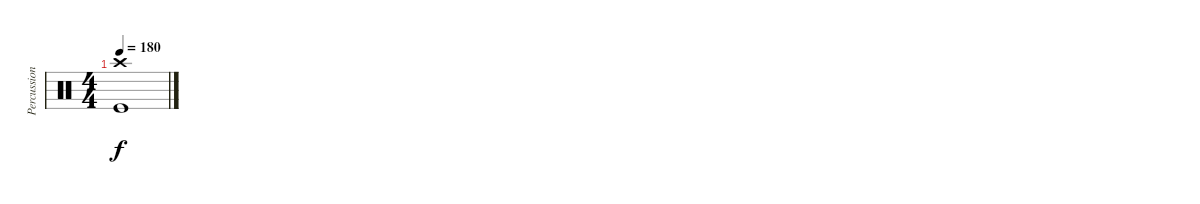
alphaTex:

\track ("Percussion" "Percussion") {instrument percussion}
\staff {score}
\articulation defaults
\ts (4 4)
\tempo 180
\clef neutral
\ks c
("Crash high (hit)" "Kick (hit)").1{dy f}
